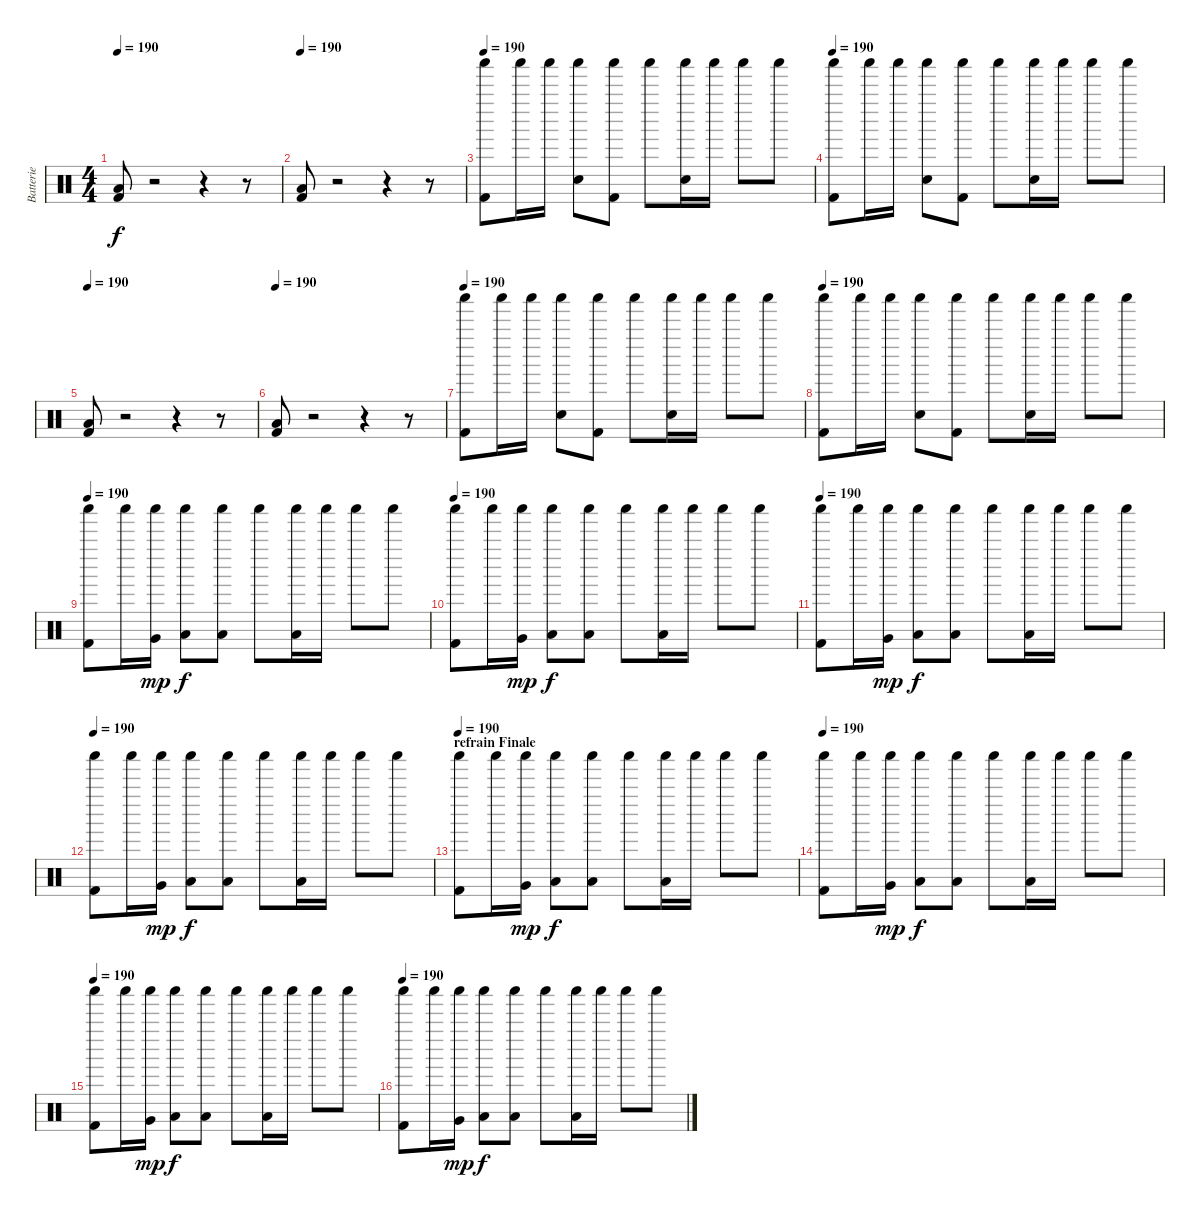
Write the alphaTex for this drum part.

\track ("Batterie" "Batterie") {instrument percussion}
\staff {score}
\articulation defaults
\ts (4 4)
\tempo 200
\tempo 190
\clef neutral
\ks c
("Low Tom (hit)" "Kick (hit) 2").8{dy f} r.2 r.4 r.8 |
\tempo 190
("Low Tom (hit)" "Kick (hit) 2").8 r.2 r.4 r.8 |
\tempo 190
("Shaker (hit)" "Kick (hit) 2").8 "Shaker (hit)".16 "Shaker (hit)".16 ("Shaker (hit)" "Electric Snare (hit)").8 ("Shaker (hit)" "Kick (hit) 2").8 "Shaker (hit)".8 ("Shaker (hit)" "Electric Snare (hit)").16 "Shaker (hit)".16 "Shaker (hit)".8 "Shaker (hit)".8 |
\tempo 190
("Shaker (hit)" "Kick (hit) 2").8 "Shaker (hit)".16 "Shaker (hit)".16 ("Shaker (hit)" "Electric Snare (hit)").8 ("Shaker (hit)" "Kick (hit) 2").8 "Shaker (hit)".8 ("Shaker (hit)" "Electric Snare (hit)").16 "Shaker (hit)".16 "Shaker (hit)".8 "Shaker (hit)".8 |
\tempo 200
\tempo 190
("Low Tom (hit)" "Kick (hit) 2").8 r.2 r.4 r.8 |
\tempo 190
("Low Tom (hit)" "Kick (hit) 2").8 r.2 r.4 r.8 |
\tempo 190
("Shaker (hit)" "Kick (hit) 2").8 "Shaker (hit)".16 "Shaker (hit)".16 ("Shaker (hit)" "Electric Snare (hit)").8 ("Shaker (hit)" "Kick (hit) 2").8 "Shaker (hit)".8 ("Shaker (hit)" "Electric Snare (hit)").16 "Shaker (hit)".16 "Shaker (hit)".8 "Shaker (hit)".8 |
\tempo 190
("Shaker (hit)" "Kick (hit) 2").8 "Shaker (hit)".16 "Shaker (hit)".16 ("Shaker (hit)" "Electric Snare (hit)").8 ("Shaker (hit)" "Kick (hit) 2").8 "Shaker (hit)".8 ("Shaker (hit)" "Electric Snare (hit)").16 "Shaker (hit)".16 "Shaker (hit)".8 "Shaker (hit)".8 |
\tempo 190
("Shaker (hit)" "Kick (hit) 2").8 "Shaker (hit)".16 ("Shaker (hit)" "Very Low Tom (hit)").16{dy mp} ("Shaker (hit)" "Low Tom (hit)").8{dy f} ("Shaker (hit)" "Low Tom (hit)").8 "Shaker (hit)".8 ("Shaker (hit)" "Low Tom (hit)").16 "Shaker (hit)".16 "Shaker (hit)".8 "Shaker (hit)".8 |
\tempo 190
("Shaker (hit)" "Kick (hit) 2").8 "Shaker (hit)".16 ("Shaker (hit)" "Very Low Tom (hit)").16{dy mp} ("Shaker (hit)" "Low Tom (hit)").8{dy f} ("Shaker (hit)" "Low Tom (hit)").8 "Shaker (hit)".8 ("Shaker (hit)" "Low Tom (hit)").16 "Shaker (hit)".16 "Shaker (hit)".8 "Shaker (hit)".8 |
\tempo 190
("Shaker (hit)" "Kick (hit) 2").8 "Shaker (hit)".16 ("Shaker (hit)" "Very Low Tom (hit)").16{dy mp} ("Shaker (hit)" "Low Tom (hit)").8{dy f} ("Shaker (hit)" "Low Tom (hit)").8 "Shaker (hit)".8 ("Shaker (hit)" "Low Tom (hit)").16 "Shaker (hit)".16 "Shaker (hit)".8 "Shaker (hit)".8 |
\tempo 190
("Shaker (hit)" "Kick (hit) 2").8 "Shaker (hit)".16 ("Shaker (hit)" "Very Low Tom (hit)").16{dy mp} ("Shaker (hit)" "Low Tom (hit)").8{dy f} ("Shaker (hit)" "Low Tom (hit)").8 "Shaker (hit)".8 ("Shaker (hit)" "Low Tom (hit)").16 "Shaker (hit)".16 "Shaker (hit)".8 "Shaker (hit)".8 |
\section ("" "refrain Finale")
\tempo 190
("Shaker (hit)" "Kick (hit) 2").8 "Shaker (hit)".16 ("Shaker (hit)" "Very Low Tom (hit)").16{dy mp} ("Shaker (hit)" "Low Tom (hit)").8{dy f} ("Shaker (hit)" "Low Tom (hit)").8 "Shaker (hit)".8 ("Shaker (hit)" "Low Tom (hit)").16 "Shaker (hit)".16 "Shaker (hit)".8 "Shaker (hit)".8 |
\tempo 190
("Shaker (hit)" "Kick (hit) 2").8 "Shaker (hit)".16 ("Shaker (hit)" "Very Low Tom (hit)").16{dy mp} ("Shaker (hit)" "Low Tom (hit)").8{dy f} ("Shaker (hit)" "Low Tom (hit)").8 "Shaker (hit)".8 ("Shaker (hit)" "Low Tom (hit)").16 "Shaker (hit)".16 "Shaker (hit)".8 "Shaker (hit)".8 |
\tempo 190
("Shaker (hit)" "Kick (hit) 2").8 "Shaker (hit)".16 ("Shaker (hit)" "Very Low Tom (hit)").16{dy mp} ("Shaker (hit)" "Low Tom (hit)").8{dy f} ("Shaker (hit)" "Low Tom (hit)").8 "Shaker (hit)".8 ("Shaker (hit)" "Low Tom (hit)").16 "Shaker (hit)".16 "Shaker (hit)".8 "Shaker (hit)".8 |
\tempo 190
("Shaker (hit)" "Kick (hit) 2").8 "Shaker (hit)".16 ("Shaker (hit)" "Very Low Tom (hit)").16{dy mp} ("Shaker (hit)" "Low Tom (hit)").8{dy f} ("Shaker (hit)" "Low Tom (hit)").8 "Shaker (hit)".8 ("Shaker (hit)" "Low Tom (hit)").16 "Shaker (hit)".16 "Shaker (hit)".8 "Shaker (hit)".8
